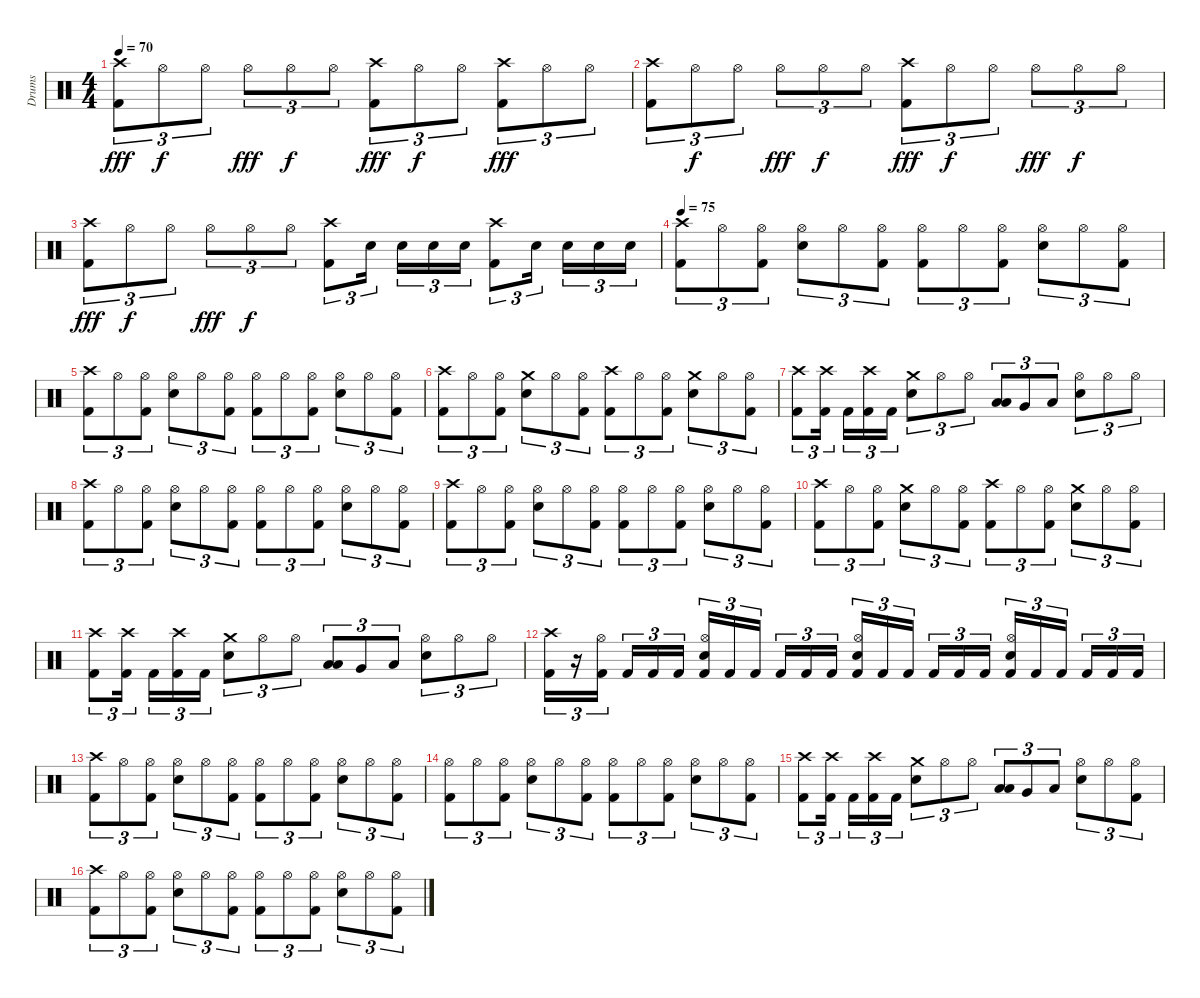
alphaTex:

\track ("Drums" "Drums") {instrument percussion}
\staff {score}
\articulation defaults
\ts (4 4)
\tempo 70
\clef neutral
\ks c
("Crash high (hit)" "Kick (hit) 2").8{tu (3 2) dy fff} "Hi-Hat (open)".8{tu (3 2) dy f} "Hi-Hat (open)".8{tu (3 2)} "Hi-Hat (open)".8{tu (3 2) dy fff} "Hi-Hat (open)".8{tu (3 2) dy f} "Hi-Hat (open)".8{tu (3 2)} ("Crash high (hit)" "Kick (hit) 2").8{tu (3 2) dy fff} "Hi-Hat (open)".8{tu (3 2) dy f} "Hi-Hat (open)".8{tu (3 2)} ("Crash high (hit)" "Kick (hit) 2").8{tu (3 2) dy fff} "Hi-Hat (open)".8{tu (3 2)} "Hi-Hat (open)".8{tu (3 2)} |
("Crash high (hit)" "Kick (hit) 2").8{tu (3 2)} "Hi-Hat (open)".8{tu (3 2) dy f} "Hi-Hat (open)".8{tu (3 2)} "Hi-Hat (open)".8{tu (3 2) dy fff} "Hi-Hat (open)".8{tu (3 2) dy f} "Hi-Hat (open)".8{tu (3 2)} ("Crash high (hit)" "Kick (hit) 2").8{tu (3 2) dy fff} "Hi-Hat (open)".8{tu (3 2) dy f} "Hi-Hat (open)".8{tu (3 2)} "Hi-Hat (open)".8{tu (3 2) dy fff} "Hi-Hat (open)".8{tu (3 2) dy f} "Hi-Hat (open)".8{tu (3 2)} |
("Crash high (hit)" "Kick (hit) 2").8{tu (3 2) dy fff} "Hi-Hat (open)".8{tu (3 2) dy f} "Hi-Hat (open)".8{tu (3 2)} "Hi-Hat (open)".8{tu (3 2) dy fff} "Hi-Hat (open)".8{tu (3 2) dy f} "Hi-Hat (open)".8{tu (3 2)} ("Crash high (hit)" "Kick (hit) 2").8{tu (3 2)} "Electric Snare (hit)".16{tu (3 2)} "Electric Snare (hit)".16{tu (3 2)} "Electric Snare (hit)".16{tu (3 2)} "Electric Snare (hit)".16{tu (3 2)} ("Crash high (hit)" "Kick (hit) 2").8{tu (3 2)} "Electric Snare (hit)".16{tu (3 2)} "Electric Snare (hit)".16{tu (3 2)} "Electric Snare (hit)".16{tu (3 2)} "Electric Snare (hit)".16{tu (3 2)} |
\tempo 75
("Crash high (hit)" "Kick (hit) 2").8{tu (3 2)} "Hi-Hat (open)".8{tu (3 2)} ("Hi-Hat (open)" "Kick (hit) 2").8{tu (3 2)} ("Hi-Hat (open)" "Electric Snare (hit)").8{tu (3 2)} "Hi-Hat (open)".8{tu (3 2)} ("Hi-Hat (open)" "Kick (hit) 2").8{tu (3 2)} ("Hi-Hat (open)" "Kick (hit) 2").8{tu (3 2)} "Hi-Hat (open)".8{tu (3 2)} ("Hi-Hat (open)" "Kick (hit) 2").8{tu (3 2)} ("Hi-Hat (open)" "Electric Snare (hit)").8{tu (3 2)} "Hi-Hat (open)".8{tu (3 2)} ("Hi-Hat (open)" "Kick (hit) 2").8{tu (3 2)} |
("Crash high (hit)" "Kick (hit) 2").8{tu (3 2)} "Hi-Hat (open)".8{tu (3 2)} ("Hi-Hat (open)" "Kick (hit) 2").8{tu (3 2)} ("Hi-Hat (open)" "Electric Snare (hit)").8{tu (3 2)} "Hi-Hat (open)".8{tu (3 2)} ("Hi-Hat (open)" "Kick (hit) 2").8{tu (3 2)} ("Hi-Hat (open)" "Kick (hit) 2").8{tu (3 2)} "Hi-Hat (open)".8{tu (3 2)} ("Hi-Hat (open)" "Kick (hit) 2").8{tu (3 2)} ("Hi-Hat (open)" "Electric Snare (hit)").8{tu (3 2)} "Hi-Hat (open)".8{tu (3 2)} ("Hi-Hat (open)" "Kick (hit) 2").8{tu (3 2)} |
("Crash high (hit)" "Kick (hit) 2").8{tu (3 2)} "Hi-Hat (open)".8{tu (3 2)} ("Hi-Hat (open)" "Kick (hit) 2").8{tu (3 2)} ("Crash medium (hit)" "Electric Snare (hit)").8{tu (3 2)} "Hi-Hat (open)".8{tu (3 2)} ("Hi-Hat (open)" "Kick (hit) 2").8{tu (3 2)} ("Crash high (hit)" "Kick (hit) 2").8{tu (3 2)} "Hi-Hat (open)".8{tu (3 2)} ("Hi-Hat (open)" "Kick (hit) 2").8{tu (3 2)} ("Crash medium (hit)" "Electric Snare (hit)").8{tu (3 2)} "Hi-Hat (open)".8{tu (3 2)} ("Hi-Hat (open)" "Kick (hit) 2").8{tu (3 2)} |
("Crash high (hit)" "Kick (hit) 2").8{tu (3 2)} ("Crash high (hit)" "Kick (hit) 2").16{tu (3 2)} "Kick (hit) 2".16{tu (3 2)} ("Crash high (hit)" "Kick (hit) 2").16{tu (3 2)} "Kick (hit) 2".16{tu (3 2)} ("Crash medium (hit)" "Electric Snare (hit)").8{tu (3 2)} "Hi-Hat (open)".8{tu (3 2)} "Hi-Hat (open)".8{tu (3 2)} ("Low Tom (hit)" "Low Tom (hit)").8{tu (3 2) bu 60} "Very Low Tom (hit)".8{tu (3 2)} "Low Floor Tom (hit)".8{tu (3 2)} ("Hi-Hat (open)" "Electric Snare (hit)").8{tu (3 2)} "Hi-Hat (open)".8{tu (3 2)} "Hi-Hat (open)".8{tu (3 2)} |
("Crash high (hit)" "Kick (hit) 2").8{tu (3 2)} "Hi-Hat (open)".8{tu (3 2)} ("Hi-Hat (open)" "Kick (hit) 2").8{tu (3 2)} ("Hi-Hat (open)" "Electric Snare (hit)").8{tu (3 2)} "Hi-Hat (open)".8{tu (3 2)} ("Hi-Hat (open)" "Kick (hit) 2").8{tu (3 2)} ("Hi-Hat (open)" "Kick (hit) 2").8{tu (3 2)} "Hi-Hat (open)".8{tu (3 2)} ("Hi-Hat (open)" "Kick (hit) 2").8{tu (3 2)} ("Hi-Hat (open)" "Electric Snare (hit)").8{tu (3 2)} "Hi-Hat (open)".8{tu (3 2)} ("Hi-Hat (open)" "Kick (hit) 2").8{tu (3 2)} |
("Crash high (hit)" "Kick (hit) 2").8{tu (3 2)} "Hi-Hat (open)".8{tu (3 2)} ("Hi-Hat (open)" "Kick (hit) 2").8{tu (3 2)} ("Hi-Hat (open)" "Electric Snare (hit)").8{tu (3 2)} "Hi-Hat (open)".8{tu (3 2)} ("Hi-Hat (open)" "Kick (hit) 2").8{tu (3 2)} ("Hi-Hat (open)" "Kick (hit) 2").8{tu (3 2)} "Hi-Hat (open)".8{tu (3 2)} ("Hi-Hat (open)" "Kick (hit) 2").8{tu (3 2)} ("Hi-Hat (open)" "Electric Snare (hit)").8{tu (3 2)} "Hi-Hat (open)".8{tu (3 2)} ("Hi-Hat (open)" "Kick (hit) 2").8{tu (3 2)} |
("Crash high (hit)" "Kick (hit) 2").8{tu (3 2)} "Hi-Hat (open)".8{tu (3 2)} ("Hi-Hat (open)" "Kick (hit) 2").8{tu (3 2)} ("Crash medium (hit)" "Electric Snare (hit)").8{tu (3 2)} "Hi-Hat (open)".8{tu (3 2)} ("Hi-Hat (open)" "Kick (hit) 2").8{tu (3 2)} ("Crash high (hit)" "Kick (hit) 2").8{tu (3 2)} "Hi-Hat (open)".8{tu (3 2)} ("Hi-Hat (open)" "Kick (hit) 2").8{tu (3 2)} ("Crash medium (hit)" "Electric Snare (hit)").8{tu (3 2)} "Hi-Hat (open)".8{tu (3 2)} ("Hi-Hat (open)" "Kick (hit) 2").8{tu (3 2)} |
("Crash high (hit)" "Kick (hit) 2").8{tu (3 2)} ("Crash high (hit)" "Kick (hit) 2").16{tu (3 2)} "Kick (hit) 2".16{tu (3 2)} ("Crash high (hit)" "Kick (hit) 2").16{tu (3 2)} "Kick (hit) 2".16{tu (3 2)} ("Crash medium (hit)" "Electric Snare (hit)").8{tu (3 2)} "Hi-Hat (open)".8{tu (3 2)} "Hi-Hat (open)".8{tu (3 2)} ("Low Tom (hit)" "Low Tom (hit)").8{tu (3 2) bu 60} "Very Low Tom (hit)".8{tu (3 2)} "Low Floor Tom (hit)".8{tu (3 2)} ("Hi-Hat (open)" "Electric Snare (hit)").8{tu (3 2)} "Hi-Hat (open)".8{tu (3 2)} "Hi-Hat (open)".8{tu (3 2)} |
("Crash high (hit)" "Kick (hit) 2").16{tu (3 2)} r.16{tu (3 2)} ("Hi-Hat (open)" "Kick (hit) 2").16{tu (3 2)} "Kick (hit) 2".16{tu (3 2)} "Kick (hit) 2".16{tu (3 2)} "Kick (hit) 2".16{tu (3 2)} ("Hi-Hat (open)" "Electric Snare (hit)" "Kick (hit) 2").16{tu (3 2)} "Kick (hit) 2".16{tu (3 2)} "Kick (hit) 2".16{tu (3 2)} "Kick (hit) 2".16{tu (3 2)} "Kick (hit) 2".16{tu (3 2)} "Kick (hit) 2".16{tu (3 2)} ("Hi-Hat (open)" "Electric Snare (hit)" "Kick (hit) 2").16{tu (3 2)} "Kick (hit) 2".16{tu (3 2)} "Kick (hit) 2".16{tu (3 2)} "Kick (hit) 2".16{tu (3 2)} "Kick (hit) 2".16{tu (3 2)} "Kick (hit) 2".16{tu (3 2)} ("Hi-Hat (open)" "Electric Snare (hit)" "Kick (hit) 2").16{tu (3 2)} "Kick (hit) 2".16{tu (3 2)} "Kick (hit) 2".16{tu (3 2)} "Kick (hit) 2".16{tu (3 2)} "Kick (hit) 2".16{tu (3 2)} "Kick (hit) 2".16{tu (3 2)} |
("Crash high (hit)" "Kick (hit) 2").8{tu (3 2)} "Hi-Hat (open)".8{tu (3 2)} ("Hi-Hat (open)" "Kick (hit) 2").8{tu (3 2)} ("Hi-Hat (open)" "Electric Snare (hit)").8{tu (3 2)} "Hi-Hat (open)".8{tu (3 2)} ("Hi-Hat (open)" "Kick (hit) 2").8{tu (3 2)} ("Hi-Hat (open)" "Kick (hit) 2").8{tu (3 2)} "Hi-Hat (open)".8{tu (3 2)} ("Hi-Hat (open)" "Kick (hit) 2").8{tu (3 2)} ("Hi-Hat (open)" "Electric Snare (hit)").8{tu (3 2)} "Hi-Hat (open)".8{tu (3 2)} ("Hi-Hat (open)" "Kick (hit) 2").8{tu (3 2)} |
("Hi-Hat (open)" "Kick (hit) 2").8{tu (3 2)} "Hi-Hat (open)".8{tu (3 2)} ("Hi-Hat (open)" "Kick (hit) 2").8{tu (3 2)} ("Hi-Hat (open)" "Electric Snare (hit)").8{tu (3 2)} "Hi-Hat (open)".8{tu (3 2)} ("Hi-Hat (open)" "Kick (hit) 2").8{tu (3 2)} ("Hi-Hat (open)" "Kick (hit) 2").8{tu (3 2)} "Hi-Hat (open)".8{tu (3 2)} ("Hi-Hat (open)" "Kick (hit) 2").8{tu (3 2)} ("Hi-Hat (open)" "Electric Snare (hit)").8{tu (3 2)} "Hi-Hat (open)".8{tu (3 2)} ("Hi-Hat (open)" "Kick (hit) 2").8{tu (3 2)} |
("Crash high (hit)" "Kick (hit) 2").8{tu (3 2)} ("Crash high (hit)" "Kick (hit) 2").16{tu (3 2)} "Kick (hit) 2".16{tu (3 2)} ("Crash high (hit)" "Kick (hit) 2").16{tu (3 2)} "Kick (hit) 2".16{tu (3 2)} ("Crash medium (hit)" "Electric Snare (hit)").8{tu (3 2)} "Hi-Hat (open)".8{tu (3 2)} "Hi-Hat (open)".8{tu (3 2)} ("Low Tom (hit)" "Low Tom (hit)").8{tu (3 2) bu 60} "Very Low Tom (hit)".8{tu (3 2)} "Low Floor Tom (hit)".8{tu (3 2)} ("Hi-Hat (open)" "Electric Snare (hit)").8{tu (3 2)} "Hi-Hat (open)".8{tu (3 2)} ("Hi-Hat (open)" "Kick (hit) 2").8{tu (3 2)} |
("Crash high (hit)" "Kick (hit) 2").8{tu (3 2)} "Hi-Hat (open)".8{tu (3 2)} ("Hi-Hat (open)" "Kick (hit) 2").8{tu (3 2)} ("Hi-Hat (open)" "Electric Snare (hit)").8{tu (3 2)} "Hi-Hat (open)".8{tu (3 2)} ("Hi-Hat (open)" "Kick (hit) 2").8{tu (3 2)} ("Hi-Hat (open)" "Kick (hit) 2").8{tu (3 2)} "Hi-Hat (open)".8{tu (3 2)} ("Hi-Hat (open)" "Kick (hit) 2").8{tu (3 2)} ("Hi-Hat (open)" "Electric Snare (hit)").8{tu (3 2)} "Hi-Hat (open)".8{tu (3 2)} ("Hi-Hat (open)" "Kick (hit) 2").8{tu (3 2)}
